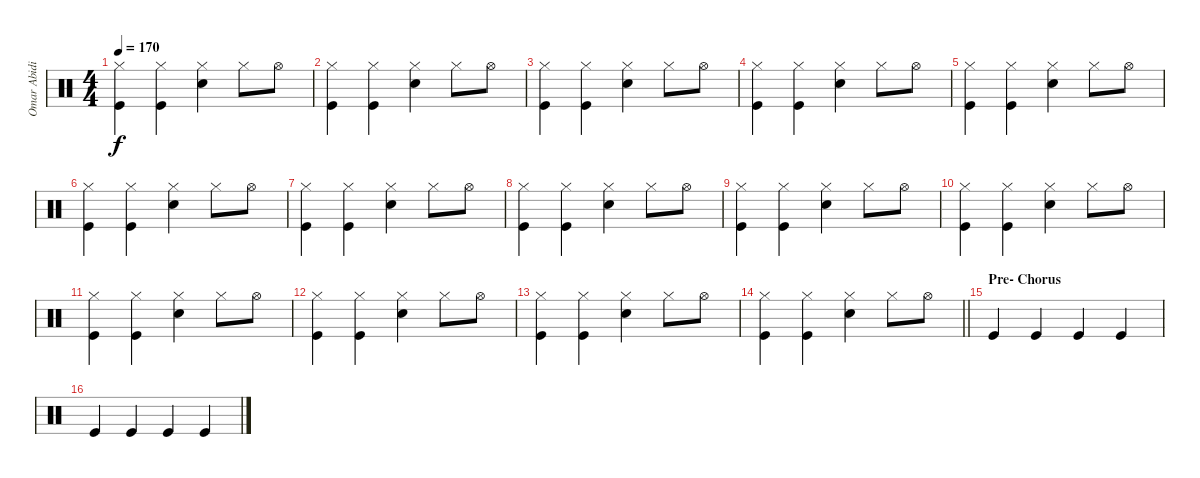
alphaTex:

\track ("Omar Abidi" "Omar Abidi") {instrument percussion}
\staff {score}
\articulation defaults
\ts (4 4)
\tempo 170
\clef neutral
\ks c
("Hi-Hat (closed)" "Kick (hit)").4{dy f} ("Hi-Hat (closed)" "Kick (hit)").4 ("Hi-Hat (closed)" "Snare (hit) 2").4 "Hi-Hat (closed)".8 "Hi-Hat (open)".8 |
("Hi-Hat (closed)" "Kick (hit)").4 ("Hi-Hat (closed)" "Kick (hit)").4 ("Hi-Hat (closed)" "Snare (hit) 2").4 "Hi-Hat (closed)".8 "Hi-Hat (open)".8 |
("Hi-Hat (closed)" "Kick (hit)").4 ("Hi-Hat (closed)" "Kick (hit)").4 ("Hi-Hat (closed)" "Snare (hit) 2").4 "Hi-Hat (closed)".8 "Hi-Hat (open)".8 |
("Hi-Hat (closed)" "Kick (hit)").4 ("Hi-Hat (closed)" "Kick (hit)").4 ("Hi-Hat (closed)" "Snare (hit) 2").4 "Hi-Hat (closed)".8 "Hi-Hat (open)".8 |
("Hi-Hat (closed)" "Kick (hit)").4 ("Hi-Hat (closed)" "Kick (hit)").4 ("Hi-Hat (closed)" "Snare (hit) 2").4 "Hi-Hat (closed)".8 "Hi-Hat (open)".8 |
("Hi-Hat (closed)" "Kick (hit)").4 ("Hi-Hat (closed)" "Kick (hit)").4 ("Hi-Hat (closed)" "Snare (hit) 2").4 "Hi-Hat (closed)".8 "Hi-Hat (open)".8 |
("Hi-Hat (closed)" "Kick (hit)").4 ("Hi-Hat (closed)" "Kick (hit)").4 ("Hi-Hat (closed)" "Snare (hit) 2").4 "Hi-Hat (closed)".8 "Hi-Hat (open)".8 |
("Hi-Hat (closed)" "Kick (hit)").4 ("Hi-Hat (closed)" "Kick (hit)").4 ("Hi-Hat (closed)" "Snare (hit) 2").4 "Hi-Hat (closed)".8 "Hi-Hat (open)".8 |
("Hi-Hat (closed)" "Kick (hit)").4 ("Hi-Hat (closed)" "Kick (hit)").4 ("Hi-Hat (closed)" "Snare (hit) 2").4 "Hi-Hat (closed)".8 "Hi-Hat (open)".8 |
("Hi-Hat (closed)" "Kick (hit)").4 ("Hi-Hat (closed)" "Kick (hit)").4 ("Hi-Hat (closed)" "Snare (hit) 2").4 "Hi-Hat (closed)".8 "Hi-Hat (open)".8 |
("Hi-Hat (closed)" "Kick (hit)").4 ("Hi-Hat (closed)" "Kick (hit)").4 ("Hi-Hat (closed)" "Snare (hit) 2").4 "Hi-Hat (closed)".8 "Hi-Hat (open)".8 |
("Hi-Hat (closed)" "Kick (hit)").4 ("Hi-Hat (closed)" "Kick (hit)").4 ("Hi-Hat (closed)" "Snare (hit) 2").4 "Hi-Hat (closed)".8 "Hi-Hat (open)".8 |
("Hi-Hat (closed)" "Kick (hit)").4 ("Hi-Hat (closed)" "Kick (hit)").4 ("Hi-Hat (closed)" "Snare (hit) 2").4 "Hi-Hat (closed)".8 "Hi-Hat (open)".8 |
\barLineRight lightlight
("Hi-Hat (closed)" "Kick (hit)").4 ("Hi-Hat (closed)" "Kick (hit)").4 ("Hi-Hat (closed)" "Snare (hit) 2").4 "Hi-Hat (closed)".8 "Hi-Hat (open)".8 |
\section ("" "Pre- Chorus")
"Kick (hit)".4 "Kick (hit)".4 "Kick (hit)".4 "Kick (hit)".4 |
"Kick (hit)".4 "Kick (hit)".4 "Kick (hit)".4 "Kick (hit)".4
